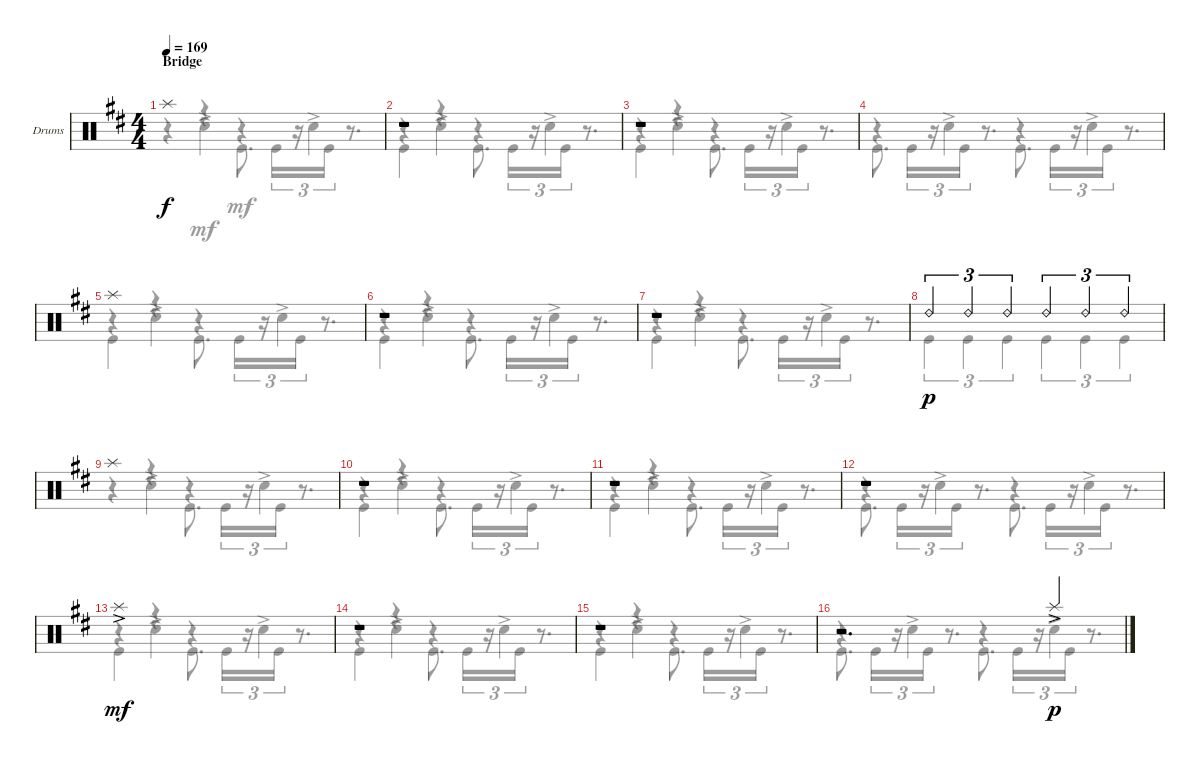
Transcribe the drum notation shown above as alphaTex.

\defaultSystemsLayout 4
\bracketExtendMode groupsimilarinstruments
\firstSystemTrackNameOrientation horizontal
\otherSystemsTrackNameOrientation horizontal
\track ("Drumkit (Wolf Gemora)" "Drums") {instrument percussion}
\staff {score}
\articulation defaults
\voice
\ts (4 4)
\section ("" "Bridge")
\tempo 169
\clef neutral
\ks bminor "Splash (hit)".1{dy f}
|
r.1 |
r.1 |
|
"Splash (hit)".1 |
r.1 |
r.1 |
"Ride (bell) 2".4{tu (3 2) dy p} "Ride (bell) 2".4{tu (3 2)} "Ride (bell) 2".4{tu (3 2)} "Ride (bell) 2".4{tu (3 2)} "Ride (bell) 2".4{tu (3 2)} "Ride (bell) 2".4{tu (3 2)} |
"Splash (hit)".1 |
r.1 |
r.1 |
r.1 |
"Splash (hit)"{ac}.1{dy mf} |
r.1 |
r.1 |
r.2{d} "Splash (hit)"{ac}.4{dy p}
\voice
\clef neutral
\ottava regular
\simile none
\ks bminor
r.4{dy mf} r.4 "Kick (hit)".8{d} "Kick (hit)".16{tu (3 2)} r.16{tu (3 2)} "Kick (hit)".16{tu (3 2)} r.8{d} |
"Kick (hit)".4 r.4 "Kick (hit)".8{d} "Kick (hit)".16{tu (3 2)} r.16{tu (3 2)} "Kick (hit)".16{tu (3 2)} r.8{d} |
"Kick (hit)".4 r.4 "Kick (hit)".8{d} "Kick (hit)".16{tu (3 2)} r.16{tu (3 2)} "Kick (hit)".16{tu (3 2)} r.8{d} |
"Kick (hit)".8{d} "Kick (hit)".16{tu (3 2)} r.16{tu (3 2)} "Kick (hit)".16{tu (3 2)} r.8{d} "Kick (hit)".8{d} "Kick (hit)".16{tu (3 2)} r.16{tu (3 2)} "Kick (hit)".16{tu (3 2)} r.8{d} |
"Kick (hit)".4 r.4 "Kick (hit)".8{d} "Kick (hit)".16{tu (3 2)} r.16{tu (3 2)} "Kick (hit)".16{tu (3 2)} r.8{d} |
"Kick (hit)".4 r.4 "Kick (hit)".8{d} "Kick (hit)".16{tu (3 2)} r.16{tu (3 2)} "Kick (hit)".16{tu (3 2)} r.8{d} |
"Kick (hit)".4 r.4 "Kick (hit)".8{d} "Kick (hit)".16{tu (3 2)} r.16{tu (3 2)} "Kick (hit)".16{tu (3 2)} r.8{d} |
"Kick (hit)".4{tu (3 2)} "Kick (hit)".4{tu (3 2)} "Kick (hit)".4{tu (3 2)} "Kick (hit)".4{tu (3 2)} "Kick (hit)".4{tu (3 2)} "Kick (hit)".4{tu (3 2)} |
r.4 r.4 "Kick (hit)".8{d} "Kick (hit)".16{tu (3 2)} r.16{tu (3 2)} "Kick (hit)".16{tu (3 2)} r.8{d} |
"Kick (hit)".4 r.4 "Kick (hit)".8{d} "Kick (hit)".16{tu (3 2)} r.16{tu (3 2)} "Kick (hit)".16{tu (3 2)} r.8{d} |
"Kick (hit)".4 r.4 "Kick (hit)".8{d} "Kick (hit)".16{tu (3 2)} r.16{tu (3 2)} "Kick (hit)".16{tu (3 2)} r.8{d} |
"Kick (hit)".8{d} "Kick (hit)".16{tu (3 2)} r.16{tu (3 2)} "Kick (hit)".16{tu (3 2)} r.8{d} "Kick (hit)".8{d} "Kick (hit)".16{tu (3 2)} r.16{tu (3 2)} "Kick (hit)".16{tu (3 2)} r.8{d} |
"Kick (hit)".4 r.4 "Kick (hit)".8{d} "Kick (hit)".16{tu (3 2)} r.16{tu (3 2)} "Kick (hit)".16{tu (3 2)} r.8{d} |
"Kick (hit)".4 r.4 "Kick (hit)".8{d} "Kick (hit)".16{tu (3 2)} r.16{tu (3 2)} "Kick (hit)".16{tu (3 2)} r.8{d} |
"Kick (hit)".4 r.4 "Kick (hit)".8{d} "Kick (hit)".16{tu (3 2)} r.16{tu (3 2)} "Kick (hit)".16{tu (3 2)} r.8{d} |
"Kick (hit)".8{d} "Kick (hit)".16{tu (3 2)} r.16{tu (3 2)} "Kick (hit)".16{tu (3 2)} r.8{d} "Kick (hit)".8{d} "Kick (hit)".16{tu (3 2)} r.16{tu (3 2)} "Kick (hit)".16{tu (3 2)} r.8{d}
\voice
\clef neutral
\ottava regular
\simile none
\ks bminor
r.4{dy f} "Snare (hit) 2"{ac}.4{dy mf} r.4 "Snare (hit) 2"{ac}.4 |
r.4 "Snare (hit) 2"{ac}.4 r.4 "Snare (hit) 2"{ac}.4 |
r.4 "Snare (hit) 2"{ac}.4 r.4 "Snare (hit) 2"{ac}.4 |
r.4 "Snare (hit) 2"{ac}.4 r.4 "Snare (hit) 2"{ac}.4 |
r.4 "Snare (hit) 2"{ac}.4 r.4 "Snare (hit) 2"{ac}.4 |
r.4 "Snare (hit) 2"{ac}.4 r.4 "Snare (hit) 2"{ac}.4 |
r.4 "Snare (hit) 2"{ac}.4 r.4 "Snare (hit) 2"{ac}.4 |
|
r.4 "Snare (hit) 2"{ac}.4 r.4 "Snare (hit) 2"{ac}.4 |
r.4 "Snare (hit) 2"{ac}.4 r.4 "Snare (hit) 2"{ac}.4 |
r.4 "Snare (hit) 2"{ac}.4 r.4 "Snare (hit) 2"{ac}.4 |
r.4 "Snare (hit) 2"{ac}.4 r.4 "Snare (hit) 2"{ac}.4 |
r.4 "Snare (hit) 2"{ac}.4 r.4 "Snare (hit) 2"{ac}.4 |
r.4 "Snare (hit) 2"{ac}.4 r.4 "Snare (hit) 2"{ac}.4 |
r.4 "Snare (hit) 2"{ac}.4 r.4 "Snare (hit) 2"{ac}.4 |
r.4 "Snare (hit) 2"{ac}.4 r.4 "Snare (hit) 2"{ac}.4
